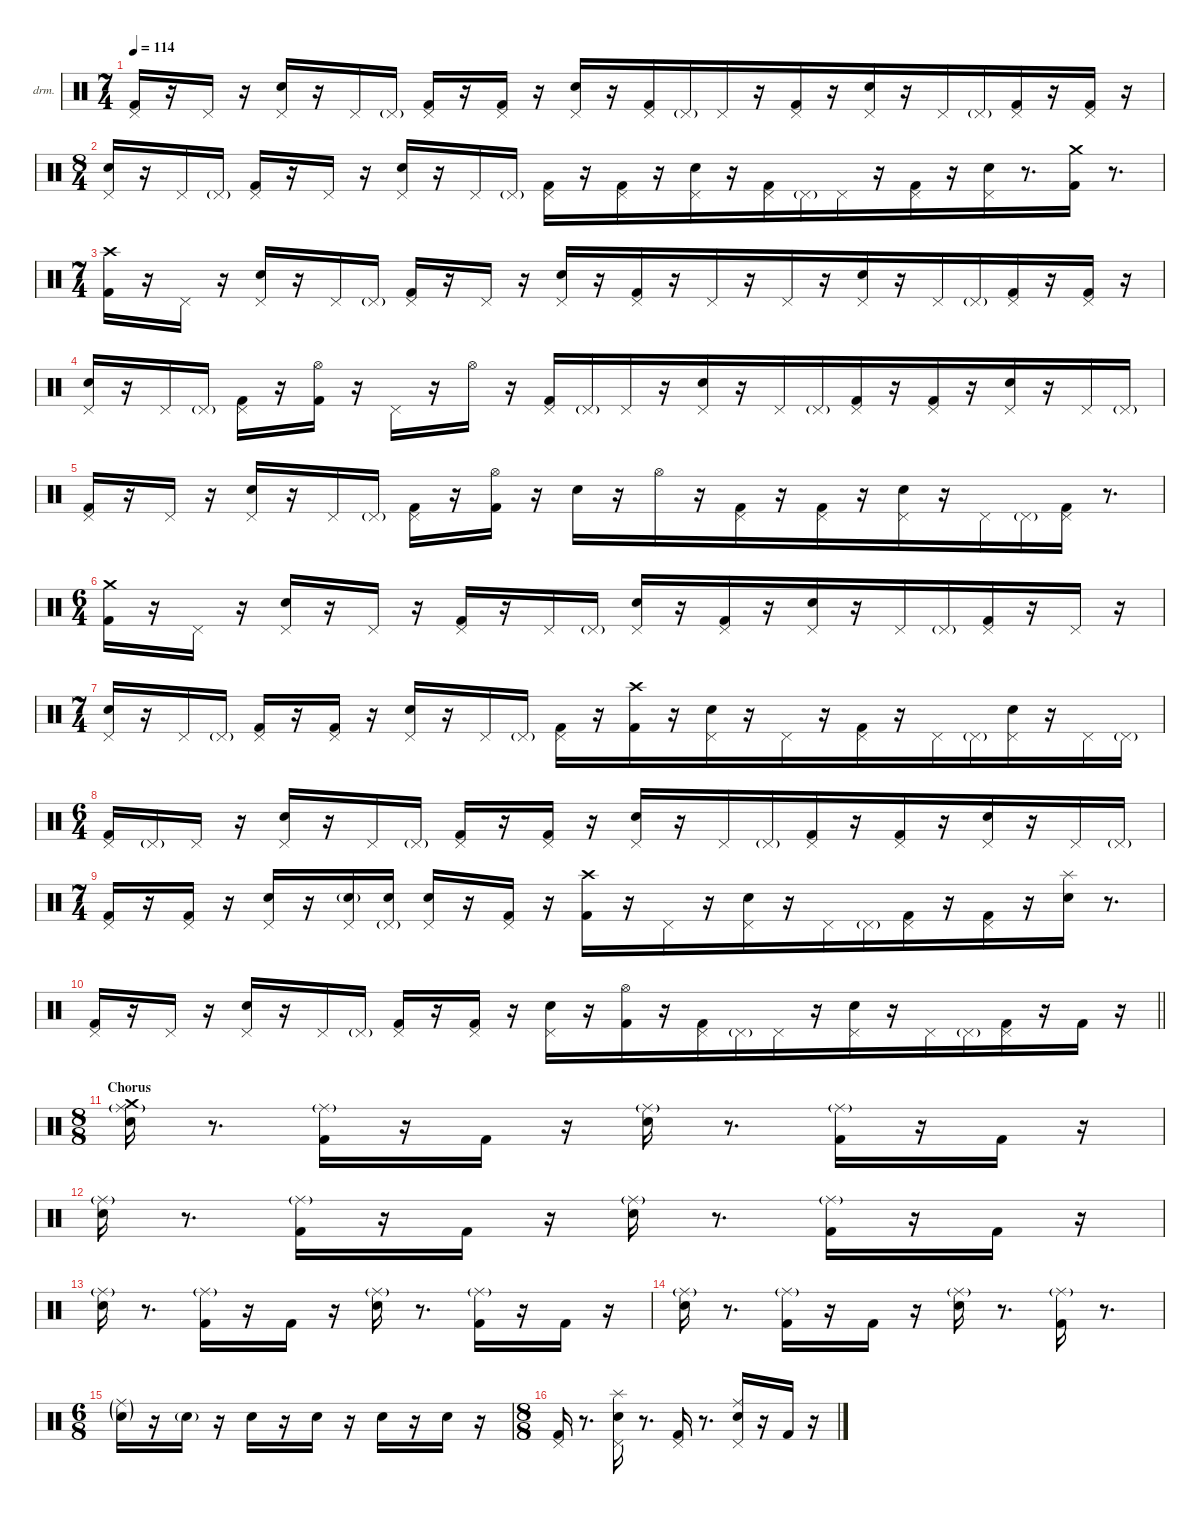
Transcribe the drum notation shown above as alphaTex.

\defaultSystemsLayout 4
\hideDynamics
\bracketExtendMode nobrackets
\firstSystemTrackNameOrientation horizontal
\otherSystemsTrackNameOrientation horizontal
\track ("Drums" "drm.") {instrument percussion}
\staff {score}
\articulation defaults
\ts (7 4)
\beaming (8 2 2 2 8)
\tempo 114
\clef neutral
\ks c
("Pedal Hi-Hat (hit)" "Kick (hit) 2").16{dy f} r.16 "Pedal Hi-Hat (hit)".16 r.16 ("Pedal Hi-Hat (hit)" "Snare (hit) 2").16 r.16 "Pedal Hi-Hat (hit)".16 "Pedal Hi-Hat (hit)"{g}.16{dy mf} ("Pedal Hi-Hat (hit)" "Kick (hit) 2").16{dy f} r.16 ("Pedal Hi-Hat (hit)" "Kick (hit) 2").16 r.16 ("Pedal Hi-Hat (hit)" "Snare (hit) 2").16 r.16 ("Pedal Hi-Hat (hit)" "Kick (hit) 2").16 "Pedal Hi-Hat (hit)"{g}.16{dy mf} "Pedal Hi-Hat (hit)".16{dy f} r.16 ("Pedal Hi-Hat (hit)" "Kick (hit) 2").16 r.16 ("Pedal Hi-Hat (hit)" "Snare (hit) 2").16 r.16 "Pedal Hi-Hat (hit)".16 "Pedal Hi-Hat (hit)"{g}.16{dy mf} ("Pedal Hi-Hat (hit)" "Kick (hit) 2").16{dy f} r.16 ("Pedal Hi-Hat (hit)" "Kick (hit) 2").16 r.16 |
\ts (8 4)
\beaming (8 2 2 2 10)
("Pedal Hi-Hat (hit)" "Snare (hit) 2").16 r.16 "Pedal Hi-Hat (hit)".16 "Pedal Hi-Hat (hit)"{g}.16{dy mf} ("Pedal Hi-Hat (hit)" "Kick (hit) 2").16{dy f} r.16 "Pedal Hi-Hat (hit)".16 r.16 ("Pedal Hi-Hat (hit)" "Snare (hit) 2").16 r.16 "Pedal Hi-Hat (hit)".16 "Pedal Hi-Hat (hit)"{g}.16{dy mf} ("Pedal Hi-Hat (hit)" "Kick (hit) 2").16{dy f} r.16 ("Pedal Hi-Hat (hit)" "Kick (hit) 2").16 r.16 ("Pedal Hi-Hat (hit)" "Snare (hit) 2").16 r.16 ("Pedal Hi-Hat (hit)" "Kick (hit) 2").16 "Pedal Hi-Hat (hit)"{g}.16{dy mf} "Pedal Hi-Hat (hit)".16{dy f} r.16 ("Pedal Hi-Hat (hit)" "Kick (hit) 2").16 r.16 ("Pedal Hi-Hat (hit)" "Snare (hit) 2").16 r.8{d} ("Crash medium (hit)" "Kick (hit) 2").16 r.8{d} |
\ts (7 4)
\beaming (8 2 2 2 8)
("Crash high (hit)" "Kick (hit) 2").16 r.16 "Pedal Hi-Hat (hit)".16 r.16 ("Pedal Hi-Hat (hit)" "Snare (hit) 2").16 r.16 "Pedal Hi-Hat (hit)".16 "Pedal Hi-Hat (hit)"{g}.16{dy mf} ("Pedal Hi-Hat (hit)" "Kick (hit) 2").16{dy f} r.16 "Pedal Hi-Hat (hit)".16 r.16 ("Pedal Hi-Hat (hit)" "Snare (hit) 2").16 r.16 ("Pedal Hi-Hat (hit)" "Kick (hit) 2").16 r.16 "Pedal Hi-Hat (hit)".16 r.16 "Pedal Hi-Hat (hit)".16 r.16 ("Pedal Hi-Hat (hit)" "Snare (hit) 2").16 r.16 "Pedal Hi-Hat (hit)".16 "Pedal Hi-Hat (hit)"{g}.16{dy mf} ("Pedal Hi-Hat (hit)" "Kick (hit) 2").16{dy f} r.16 ("Pedal Hi-Hat (hit)" "Kick (hit) 2").16 r.16 |
("Pedal Hi-Hat (hit)" "Snare (hit) 2").16 r.16 "Pedal Hi-Hat (hit)".16 "Pedal Hi-Hat (hit)"{g}.16{dy mf} ("Pedal Hi-Hat (hit)" "Kick (hit) 2").16{dy f} r.16 ("Hi-Hat (open)" "Kick (hit) 2").16 r.16 "Pedal Hi-Hat (hit)".16 r.16 "Hi-Hat (open)".16 r.16 ("Pedal Hi-Hat (hit)" "Kick (hit) 2").16 "Pedal Hi-Hat (hit)"{g}.16{dy mf} "Pedal Hi-Hat (hit)".16{dy f} r.16 ("Pedal Hi-Hat (hit)" "Snare (hit) 2").16 r.16 "Pedal Hi-Hat (hit)".16 "Pedal Hi-Hat (hit)"{g}.16{dy mf} ("Pedal Hi-Hat (hit)" "Kick (hit) 2").16{dy f} r.16 ("Pedal Hi-Hat (hit)" "Kick (hit) 2").16 r.16 ("Pedal Hi-Hat (hit)" "Snare (hit) 2").16 r.16 "Pedal Hi-Hat (hit)".16 "Pedal Hi-Hat (hit)"{g}.16{dy mf} |
("Pedal Hi-Hat (hit)" "Kick (hit) 2").16{dy f} r.16 "Pedal Hi-Hat (hit)".16 r.16 ("Pedal Hi-Hat (hit)" "Snare (hit) 2").16 r.16 "Pedal Hi-Hat (hit)".16 "Pedal Hi-Hat (hit)"{g}.16{dy mf} ("Pedal Hi-Hat (hit)" "Kick (hit) 2").16{dy f} r.16 ("Hi-Hat (open)" "Kick (hit) 2").16 r.16 "Snare (hit) 2".16 r.16 "Hi-Hat (open)".16 r.16 ("Pedal Hi-Hat (hit)" "Kick (hit) 2").16 r.16 ("Pedal Hi-Hat (hit)" "Kick (hit) 2").16 r.16 ("Pedal Hi-Hat (hit)" "Snare (hit) 2").16 r.16 "Pedal Hi-Hat (hit)".16 "Pedal Hi-Hat (hit)"{g}.16{dy mf} ("Pedal Hi-Hat (hit)" "Kick (hit) 2").16{dy f} r.8{d} |
\ts (6 4)
\beaming (8 2 2 2 6)
("Crash medium (hit)" "Kick (hit) 2").16 r.16 "Pedal Hi-Hat (hit)".16 r.16 ("Pedal Hi-Hat (hit)" "Snare (hit) 2").16 r.16 "Pedal Hi-Hat (hit)".16 r.16 ("Pedal Hi-Hat (hit)" "Kick (hit) 2").16 r.16 "Pedal Hi-Hat (hit)".16 "Pedal Hi-Hat (hit)"{g}.16{dy mf} ("Pedal Hi-Hat (hit)" "Snare (hit) 2").16{dy f} r.16 ("Pedal Hi-Hat (hit)" "Kick (hit) 2").16 r.16 ("Pedal Hi-Hat (hit)" "Snare (hit) 2").16 r.16 "Pedal Hi-Hat (hit)".16 "Pedal Hi-Hat (hit)"{g}.16{dy mf} ("Pedal Hi-Hat (hit)" "Kick (hit) 2").16{dy f} r.16 "Pedal Hi-Hat (hit)".16 r.16 |
\ts (7 4)
\beaming (8 2 2 2 8)
("Pedal Hi-Hat (hit)" "Snare (hit) 2").16 r.16 "Pedal Hi-Hat (hit)".16 "Pedal Hi-Hat (hit)"{g}.16{dy mf} ("Pedal Hi-Hat (hit)" "Kick (hit) 2").16{dy f} r.16 ("Pedal Hi-Hat (hit)" "Kick (hit) 2").16 r.16 ("Pedal Hi-Hat (hit)" "Snare (hit) 2").16 r.16 "Pedal Hi-Hat (hit)".16 "Pedal Hi-Hat (hit)"{g}.16{dy mf} ("Pedal Hi-Hat (hit)" "Kick (hit) 2").16{dy f} r.16 ("Crash high (hit)" "Kick (hit) 2").16 r.16 ("Pedal Hi-Hat (hit)" "Snare (hit) 2").16 r.16 "Pedal Hi-Hat (hit)".16 r.16 ("Pedal Hi-Hat (hit)" "Kick (hit) 2").16 r.16 "Pedal Hi-Hat (hit)".16 "Pedal Hi-Hat (hit)"{g}.16{dy mf} ("Pedal Hi-Hat (hit)" "Snare (hit) 2").16{dy f} r.16 "Pedal Hi-Hat (hit)".16 "Pedal Hi-Hat (hit)"{g}.16{dy mf} |
\ts (6 4)
\beaming (8 2 2 2 6)
("Pedal Hi-Hat (hit)" "Kick (hit) 2").16{dy f} "Pedal Hi-Hat (hit)"{g}.16{dy mf} "Pedal Hi-Hat (hit)".16{dy f} r.16 ("Pedal Hi-Hat (hit)" "Snare (hit) 2").16 r.16 "Pedal Hi-Hat (hit)".16 "Pedal Hi-Hat (hit)"{g}.16{dy mf} ("Pedal Hi-Hat (hit)" "Kick (hit) 2").16{dy f} r.16 ("Pedal Hi-Hat (hit)" "Kick (hit) 2").16 r.16 ("Pedal Hi-Hat (hit)" "Snare (hit) 2").16 r.16 "Pedal Hi-Hat (hit)".16 "Pedal Hi-Hat (hit)"{g}.16{dy mf} ("Pedal Hi-Hat (hit)" "Kick (hit) 2").16{dy f} r.16 ("Pedal Hi-Hat (hit)" "Kick (hit) 2").16 r.16 ("Pedal Hi-Hat (hit)" "Snare (hit) 2").16 r.16 "Pedal Hi-Hat (hit)".16 "Pedal Hi-Hat (hit)"{g}.16{dy mf} |
\ts (7 4)
\beaming (8 2 2 2 8)
("Pedal Hi-Hat (hit)" "Kick (hit) 2").16{dy f} r.16 ("Pedal Hi-Hat (hit)" "Kick (hit) 2").16 r.16 ("Pedal Hi-Hat (hit)" "Snare (hit) 2").16 r.16 ("Pedal Hi-Hat (hit)" "Snare (hit) 2"{g}).16 ("Pedal Hi-Hat (hit)"{g} "Snare (hit) 2").16 ("Pedal Hi-Hat (hit)" "Snare (hit) 2").16 r.16 ("Pedal Hi-Hat (hit)" "Kick (hit) 2").16 r.16 ("Crash high (hit)" "Kick (hit) 2").16 r.16 "Pedal Hi-Hat (hit)".16 r.16 ("Pedal Hi-Hat (hit)" "Snare (hit) 2").16 r.16 "Pedal Hi-Hat (hit)".16 "Pedal Hi-Hat (hit)"{g}.16{dy mf} ("Pedal Hi-Hat (hit)" "Kick (hit) 2").16{dy f} r.16 ("Pedal Hi-Hat (hit)" "Kick (hit) 2").16 r.16 ("Splash (hit)" "Snare (hit) 2").16 r.8{d} |
\barLineRight lightlight
("Pedal Hi-Hat (hit)" "Kick (hit) 2").16 r.16 "Pedal Hi-Hat (hit)".16 r.16 ("Pedal Hi-Hat (hit)" "Snare (hit) 2").16 r.16 "Pedal Hi-Hat (hit)".16 "Pedal Hi-Hat (hit)"{g}.16{dy mf} ("Pedal Hi-Hat (hit)" "Kick (hit) 2").16{dy f} r.16 ("Pedal Hi-Hat (hit)" "Kick (hit) 2").16 r.16 ("Pedal Hi-Hat (hit)" "Snare (hit) 2").16 r.16 ("Hi-Hat (open)" "Kick (hit) 2").16 r.16 ("Pedal Hi-Hat (hit)" "Kick (hit) 2").16 "Pedal Hi-Hat (hit)"{g}.16{dy mf} "Pedal Hi-Hat (hit)".16{dy f} r.16 ("Pedal Hi-Hat (hit)" "Snare (hit) 2").16 r.16 "Pedal Hi-Hat (hit)".16 "Pedal Hi-Hat (hit)"{g}.16{dy mf} ("Pedal Hi-Hat (hit)" "Kick (hit) 2").16{dy f} r.16 "Kick (hit) 2".16 r.16 |
\ts (8 8)
\beaming (8 2 2 2 2)
\section ("" "Chorus")
("Crash medium (hit)" "Ride (middle)"{g} "Snare (hit) 2").16 r.8{d} ("Ride (middle)"{g} "Kick (hit) 2").16 r.16 "Kick (hit) 2".16 r.16 ("Ride (middle)"{g} "Snare (hit) 2").16 r.8{d} ("Ride (middle)"{g} "Kick (hit) 2").16 r.16 "Kick (hit) 2".16 r.16 |
("Ride (middle)"{g} "Snare (hit) 2").16 r.8{d} ("Ride (middle)"{g} "Kick (hit) 2").16 r.16 "Kick (hit) 2".16 r.16 ("Ride (middle)"{g} "Snare (hit) 2").16 r.8{d} ("Ride (middle)"{g} "Kick (hit) 2").16 r.16 "Kick (hit) 2".16 r.16 |
("Ride (middle)"{g} "Snare (hit) 2").16 r.8{d} ("Ride (middle)"{g} "Kick (hit) 2").16 r.16 "Kick (hit) 2".16 r.16 ("Ride (middle)"{g} "Snare (hit) 2").16 r.8{d} ("Ride (middle)"{g} "Kick (hit) 2").16 r.16 "Kick (hit) 2".16 r.16 |
("Ride (middle)"{g} "Snare (hit) 2").16 r.8{d} ("Ride (middle)"{g} "Kick (hit) 2").16 r.16 "Kick (hit) 2".16 r.16 ("Ride (middle)"{g} "Snare (hit) 2").16 r.8{d} ("Ride (middle)"{g} "Kick (hit) 2").16 r.8{d} |
\ts (6 8)
\beaming (8 2 2 2 2)
("Ride (middle)"{g} "Snare (hit) 2"{g}).16{dy pp} r.16 "Snare (hit) 2"{g}.16{dy mf} r.16 "Snare (hit) 2".16{dy f} r.16 "Snare (hit) 2".16 r.16 "Snare (hit) 2".16 r.16 "Snare (hit) 2".16 r.16 |
\ts (8 8)
\beaming (8 2 2 2 2)
("Pedal Hi-Hat (hit)" "Kick (hit) 2").16 r.8{d} ("Splash (hit)" "Pedal Hi-Hat (hit)" "Snare (hit) 2").16 r.8{d} ("Pedal Hi-Hat (hit)" "Kick (hit) 2").16 r.8{d} ("Ride (middle)" "Pedal Hi-Hat (hit)" "Snare (hit) 2").16 r.16 "Kick (hit) 2".16 r.16
